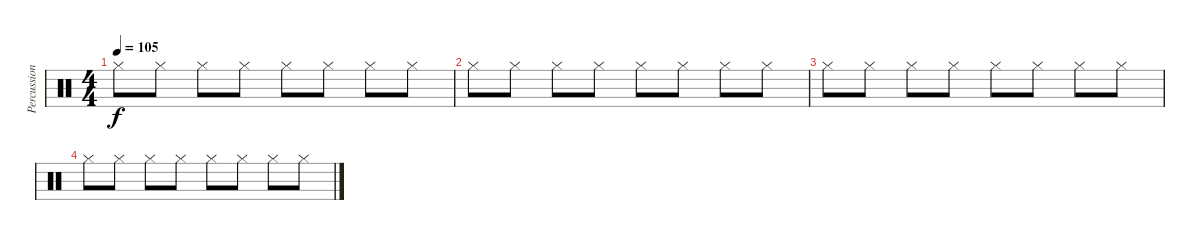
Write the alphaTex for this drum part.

\track ("Percussion" "Percussion") {instrument percussion}
\staff {score}
\articulation defaults
\ts (4 4)
\tempo 105
\clef neutral
\ks c "Hi-Hat (closed)".8{dy f} "Hi-Hat (closed)".8 "Hi-Hat (closed)".8 "Hi-Hat (closed)".8 "Hi-Hat (closed)".8 "Hi-Hat (closed)".8 "Hi-Hat (closed)".8 "Hi-Hat (closed)".8
|
"Hi-Hat (closed)".8 "Hi-Hat (closed)".8 "Hi-Hat (closed)".8 "Hi-Hat (closed)".8 "Hi-Hat (closed)".8 "Hi-Hat (closed)".8 "Hi-Hat (closed)".8 "Hi-Hat (closed)".8 |
"Hi-Hat (closed)".8 "Hi-Hat (closed)".8 "Hi-Hat (closed)".8 "Hi-Hat (closed)".8 "Hi-Hat (closed)".8 "Hi-Hat (closed)".8 "Hi-Hat (closed)".8 "Hi-Hat (closed)".8 |
"Hi-Hat (closed)".8 "Hi-Hat (closed)".8 "Hi-Hat (closed)".8 "Hi-Hat (closed)".8 "Hi-Hat (closed)".8 "Hi-Hat (closed)".8 "Hi-Hat (closed)".8 "Hi-Hat (closed)".8
